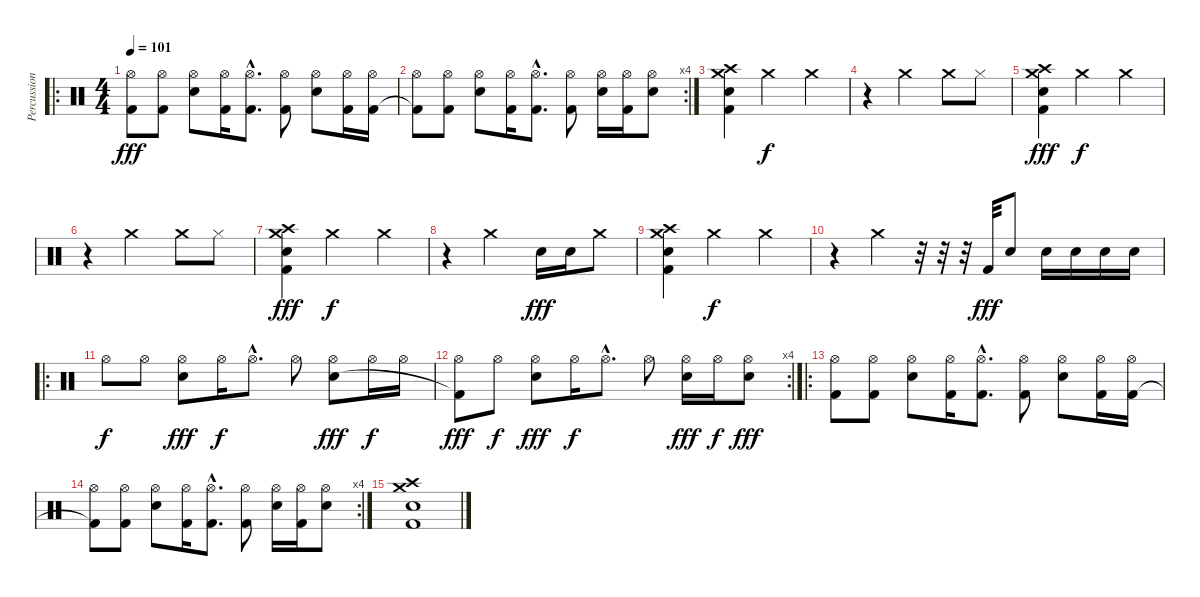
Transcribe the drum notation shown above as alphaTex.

\track ("Percussion" "Percussion") {instrument percussion}
\staff {score}
\articulation defaults
\ro
\ts (4 4)
\tempo 101
\clef neutral
\ks c
("Hi-Hat (open)" "Kick (hit) 2").8{dy fff} ("Hi-Hat (open)" "Kick (hit) 2").8 ("Hi-Hat (open)" "Snare (hit) 2").8 ("Hi-Hat (open)" "Kick (hit) 2").16 ("Hi-Hat (open)"{hac} "Kick (hit) 2"{hac}).8{d} ("Hi-Hat (open)" "Kick (hit) 2").8 ("Hi-Hat (open)" "Snare (hit) 2").8 ("Hi-Hat (open)" "Kick (hit) 2").16 ("Hi-Hat (open)" "Kick (hit) 2").16 |
\rc 4
("Hi-Hat (open)" "Kick (hit) 2"{t}).8 ("Hi-Hat (open)" "Kick (hit) 2").8 ("Hi-Hat (open)" "Snare (hit) 2").8 ("Hi-Hat (open)" "Kick (hit) 2").16 ("Hi-Hat (open)"{hac} "Kick (hit) 2"{hac}).8{d} ("Hi-Hat (open)" "Kick (hit) 2").8 ("Hi-Hat (open)" "Snare (hit) 2").16 ("Hi-Hat (open)" "Kick (hit) 2").16 ("Hi-Hat (open)" "Snare (hit) 2").8 |
("Crash high (hit)" "Crash medium (hit)" "Snare (hit) 2" "Kick (hit) 2").4 "Crash medium (hit)".2{dy f} "Crash medium (hit)".4 |
r.4 "Crash medium (hit)".2 "Crash medium (hit)".8 "Hi-Hat (closed)".8 |
("Crash high (hit)" "Crash medium (hit)" "Snare (hit) 2" "Kick (hit) 2").4{dy fff} "Crash medium (hit)".2{dy f} "Crash medium (hit)".4 |
r.4 "Crash medium (hit)".2 "Crash medium (hit)".8 "Hi-Hat (closed)".8 |
("Crash high (hit)" "Crash medium (hit)" "Snare (hit) 2" "Kick (hit) 2").4{dy fff} "Crash medium (hit)".2{dy f} "Crash medium (hit)".4 |
r.4 "Crash medium (hit)".2 "Snare (hit) 2".16{dy fff} "Snare (hit) 2".16 "Crash medium (hit)".8 |
("Crash high (hit)" "Crash medium (hit)" "Snare (hit) 2" "Kick (hit) 2").4 "Crash medium (hit)".2{dy f} "Crash medium (hit)".4 |
r.4 "Crash medium (hit)".4 r.32 r.32 r.32 "Kick (hit) 2".32{dy fff} "Snare (hit) 2".8 "Snare (hit) 2".16 "Snare (hit) 2".16 "Snare (hit) 2".16 "Snare (hit) 2".16 |
\ro "Hi-Hat (open)".8{dy f} "Hi-Hat (open)".8
("Hi-Hat (open)" "Snare (hit) 2").8{dy fff} "Hi-Hat (open)".16{dy f} "Hi-Hat (open)"{hac}.8{d} "Hi-Hat (open)".8 ("Hi-Hat (open)" "Snare (hit) 2").8{dy fff} "Hi-Hat (open)".16{dy f} "Hi-Hat (open)".16 |
\rc 4
("Hi-Hat (open)" "Kick (hit) 2"{t}).8{dy fff} "Hi-Hat (open)".8{dy f} ("Hi-Hat (open)" "Snare (hit) 2").8{dy fff} "Hi-Hat (open)".16{dy f} "Hi-Hat (open)"{hac}.8{d} "Hi-Hat (open)".8 ("Hi-Hat (open)" "Snare (hit) 2").16{dy fff} "Hi-Hat (open)".16{dy f} ("Hi-Hat (open)" "Snare (hit) 2").8{dy fff} |
\ro
("Hi-Hat (open)" "Kick (hit) 2").8 ("Hi-Hat (open)" "Kick (hit) 2").8 ("Hi-Hat (open)" "Snare (hit) 2").8 ("Hi-Hat (open)" "Kick (hit) 2").16 ("Hi-Hat (open)"{hac} "Kick (hit) 2"{hac}).8{d} ("Hi-Hat (open)" "Kick (hit) 2").8 ("Hi-Hat (open)" "Snare (hit) 2").8 ("Hi-Hat (open)" "Kick (hit) 2").16 ("Hi-Hat (open)" "Kick (hit) 2").16 |
\rc 4
("Hi-Hat (open)" "Kick (hit) 2"{t}).8 ("Hi-Hat (open)" "Kick (hit) 2").8 ("Hi-Hat (open)" "Snare (hit) 2").8 ("Hi-Hat (open)" "Kick (hit) 2").16 ("Hi-Hat (open)"{hac} "Kick (hit) 2"{hac}).8{d} ("Hi-Hat (open)" "Kick (hit) 2").8 ("Hi-Hat (open)" "Snare (hit) 2").16 ("Hi-Hat (open)" "Kick (hit) 2").16 ("Hi-Hat (open)" "Snare (hit) 2").8 |
("Crash high (hit)" "Crash medium (hit)" "Snare (hit) 2" "Kick (hit) 2").1
